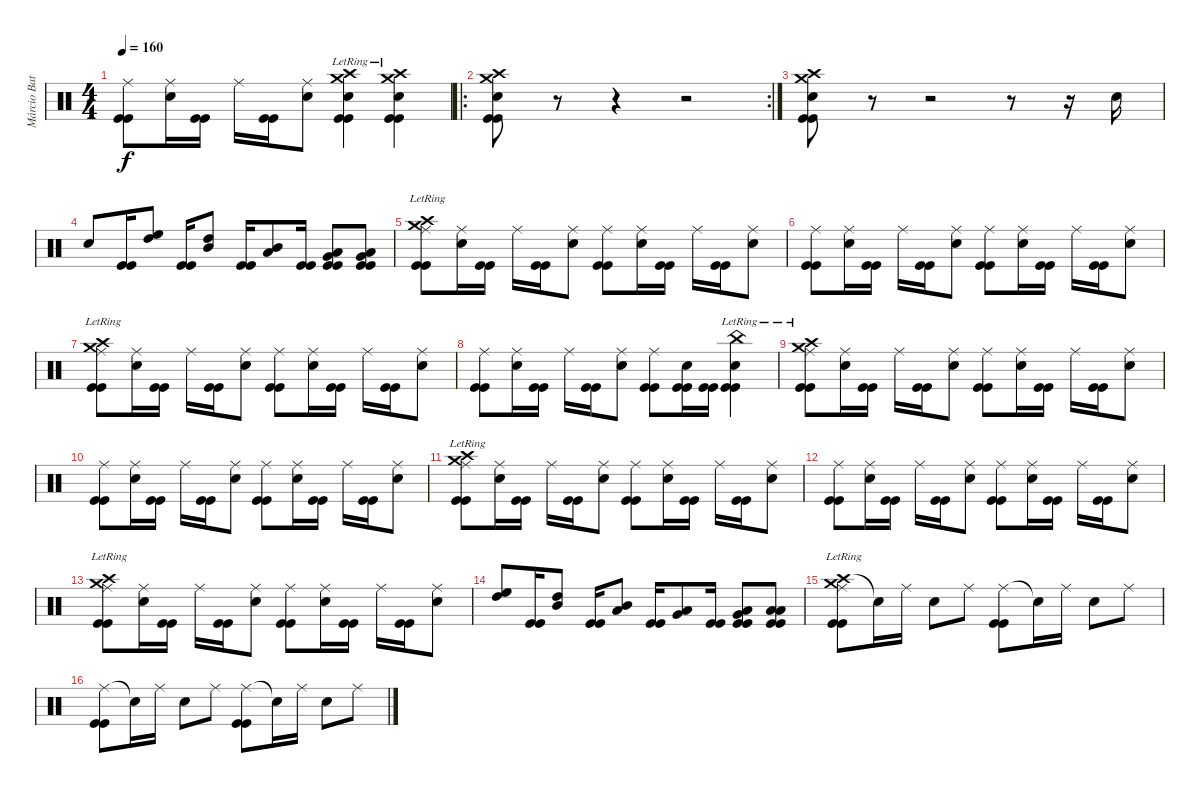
\track ("Márcio Batista" "Márcio Bat") {instrument percussion}
\staff {score}
\articulation defaults
\ts (4 4)
\tempo 160
\clef neutral
\ks c
("Ride (middle)" "Kick (hit)" "Kick (hit)").8{dy f} ("Snare (hit) 2" "Ride (middle)").16 ("Kick (hit)" "Kick (hit)").16 "Ride (middle)".16 ("Kick (hit)" "Kick (hit)").16 ("Snare (hit) 2" "Ride (middle)").8 ("Crash high (hit)"{lr} "Crash medium (hit)"{lr} "Snare (hit) 2" "Kick (hit)" "Kick (hit)").4 ("Crash high (hit)"{lr} "Crash medium (hit)"{lr} "Snare (hit) 2" "Kick (hit)" "Kick (hit)").4 |
\ro
\rc 2
("Crash high (hit)" "Crash medium (hit)" "Snare (hit) 2" "Kick (hit)" "Kick (hit)").8 r.8{volume 0} r.4{volume 16} r.2 |
("Crash high (hit)" "Crash medium (hit)" "Snare (hit) 2" "Kick (hit)" "Kick (hit)").8 r.8{volume 0} r.2{volume 16} r.8 r.16 "Electric Snare (hit)".16 |
"Electric Snare (hit)".8 ("Kick (hit)" "Kick (hit)").16 ("High Tom (hit)" "High Floor Tom (hit)").8 ("Kick (hit)" "Kick (hit)").16 ("Mid Tom (hit)" "High Tom (hit)").8 ("Kick (hit)" "Kick (hit)").16 ("Low Tom (hit)" "Mid Tom (hit)").8 ("Kick (hit)" "Kick (hit)").16 ("Very Low Tom (hit)" "Low Tom (hit)" "Kick (hit)" "Kick (hit)").8 ("Low Floor Tom (hit)" "Very Low Tom (hit)" "Kick (hit)" "Kick (hit)").8 |
("Crash high (hit)"{lr} "Crash medium (hit)"{lr} "Ride (middle)" "Kick (hit)" "Kick (hit)").8 ("Snare (hit) 2" "Ride (middle)").16 ("Kick (hit)" "Kick (hit)").16 "Ride (middle)".16 ("Kick (hit)" "Kick (hit)").16 ("Snare (hit) 2" "Ride (middle)").8 ("Ride (middle)" "Kick (hit)" "Kick (hit)").8 ("Snare (hit) 2" "Ride (middle)").16 ("Kick (hit)" "Kick (hit)").16 "Ride (middle)".16 ("Kick (hit)" "Kick (hit)").16 ("Snare (hit) 2" "Ride (middle)").8 |
("Ride (middle)" "Kick (hit)" "Kick (hit)").8 ("Snare (hit) 2" "Ride (middle)").16 ("Kick (hit)" "Kick (hit)").16 "Ride (middle)".16 ("Kick (hit)" "Kick (hit)").16 ("Snare (hit) 2" "Ride (middle)").8 ("Ride (middle)" "Kick (hit)" "Kick (hit)").8 ("Snare (hit) 2" "Ride (middle)").16 ("Kick (hit)" "Kick (hit)").16 "Ride (middle)".16 ("Kick (hit)" "Kick (hit)").16 ("Snare (hit) 2" "Ride (middle)").8 |
("Crash high (hit)"{lr} "Crash medium (hit)"{lr} "Ride (middle)" "Kick (hit)" "Kick (hit)").8 ("Snare (hit) 2" "Ride (middle)").16 ("Kick (hit)" "Kick (hit)").16 "Ride (middle)".16 ("Kick (hit)" "Kick (hit)").16 ("Snare (hit) 2" "Ride (middle)").8 ("Ride (middle)" "Kick (hit)" "Kick (hit)").8 ("Snare (hit) 2" "Ride (middle)").16 ("Kick (hit)" "Kick (hit)").16 "Ride (middle)".16 ("Kick (hit)" "Kick (hit)").16 ("Snare (hit) 2" "Ride (middle)").8 |
("Ride (middle)" "Kick (hit)" "Kick (hit)").8 ("Snare (hit) 2" "Ride (middle)").16 ("Kick (hit)" "Kick (hit)").16 "Ride (middle)".16 ("Kick (hit)" "Kick (hit)").16 ("Snare (hit) 2" "Ride (middle)").8 ("Ride (middle)" "Kick (hit)" "Kick (hit)").8 ("Snare (hit) 2" "Kick (hit)" "Kick (hit)").16 ("Kick (hit)" "Kick (hit)").16 ("China (hit)"{lr} "Snare (hit) 2" "Kick (hit)" "Kick (hit)").4 |
("Crash high (hit)"{lr} "Crash medium (hit)"{lr} "Ride (middle)" "Kick (hit)" "Kick (hit)").8 ("Snare (hit) 2" "Ride (middle)").16 ("Kick (hit)" "Kick (hit)").16 "Ride (middle)".16 ("Kick (hit)" "Kick (hit)").16 ("Snare (hit) 2" "Ride (middle)").8 ("Ride (middle)" "Kick (hit)" "Kick (hit)").8 ("Snare (hit) 2" "Ride (middle)").16 ("Kick (hit)" "Kick (hit)").16 "Ride (middle)".16 ("Kick (hit)" "Kick (hit)").16 ("Snare (hit) 2" "Ride (middle)").8 |
("Ride (middle)" "Kick (hit)" "Kick (hit)").8 ("Snare (hit) 2" "Ride (middle)").16 ("Kick (hit)" "Kick (hit)").16 "Ride (middle)".16 ("Kick (hit)" "Kick (hit)").16 ("Snare (hit) 2" "Ride (middle)").8 ("Ride (middle)" "Kick (hit)" "Kick (hit)").8 ("Snare (hit) 2" "Ride (middle)").16 ("Kick (hit)" "Kick (hit)").16 "Ride (middle)".16 ("Kick (hit)" "Kick (hit)").16 ("Snare (hit) 2" "Ride (middle)").8 |
("Crash high (hit)"{lr} "Crash medium (hit)"{lr} "Ride (middle)" "Kick (hit)" "Kick (hit)").8 ("Snare (hit) 2" "Ride (middle)").16 ("Kick (hit)" "Kick (hit)").16 "Ride (middle)".16 ("Kick (hit)" "Kick (hit)").16 ("Snare (hit) 2" "Ride (middle)").8 ("Ride (middle)" "Kick (hit)" "Kick (hit)").8 ("Snare (hit) 2" "Ride (middle)").16 ("Kick (hit)" "Kick (hit)").16 "Ride (middle)".16 ("Kick (hit)" "Kick (hit)").16 ("Snare (hit) 2" "Ride (middle)").8 |
("Ride (middle)" "Kick (hit)" "Kick (hit)").8 ("Snare (hit) 2" "Ride (middle)").16 ("Kick (hit)" "Kick (hit)").16 "Ride (middle)".16 ("Kick (hit)" "Kick (hit)").16 ("Snare (hit) 2" "Ride (middle)").8 ("Ride (middle)" "Kick (hit)" "Kick (hit)").8 ("Snare (hit) 2" "Ride (middle)").16 ("Kick (hit)" "Kick (hit)").16 "Ride (middle)".16 ("Kick (hit)" "Kick (hit)").16 ("Snare (hit) 2" "Ride (middle)").8 |
("Crash high (hit)"{lr} "Crash medium (hit)"{lr} "Ride (middle)" "Kick (hit)" "Kick (hit)").8 ("Snare (hit) 2" "Ride (middle)").16 ("Kick (hit)" "Kick (hit)").16 "Ride (middle)".16 ("Kick (hit)" "Kick (hit)").16 ("Snare (hit) 2" "Ride (middle)").8 ("Ride (middle)" "Kick (hit)" "Kick (hit)").8 ("Snare (hit) 2" "Ride (middle)").16 ("Kick (hit)" "Kick (hit)").16 "Ride (middle)".16 ("Kick (hit)" "Kick (hit)").16 ("Snare (hit) 2" "Ride (middle)").8 |
("High Tom (hit)" "High Floor Tom (hit)").8 ("Kick (hit)" "Kick (hit)").16 ("Mid Tom (hit)" "High Tom (hit)").8 ("Kick (hit)" "Kick (hit)").16 ("Low Tom (hit)" "Mid Tom (hit)").8 ("Kick (hit)" "Kick (hit)").16 ("Very Low Tom (hit)" "Low Tom (hit)").8 ("Kick (hit)" "Kick (hit)").16 ("Low Floor Tom (hit)" "Very Low Tom (hit)" "Kick (hit)" "Kick (hit)").8 ("Low Floor Tom (hit)" "Low Floor Tom (hit)" "Kick (hit)" "Kick (hit)").8 |
("Crash high (hit)"{lr} "Crash medium (hit)"{lr} "Ride (middle)" "Kick (hit)" "Kick (hit)").8 "Snare (hit)"{t}.16 "Ride (middle)".16 "Snare (hit) 2".8 "Ride (middle)".8 ("Ride (middle)" "Kick (hit)" "Kick (hit)").8 "Snare (hit)"{t}.16 "Ride (middle)".16 "Snare (hit) 2".8 "Ride (middle)".8 |
("Ride (middle)" "Kick (hit)" "Kick (hit)").8 "Snare (hit)"{t}.16 "Ride (middle)".16 "Snare (hit) 2".8 "Ride (middle)".8 ("Ride (middle)" "Kick (hit)" "Kick (hit)").8 "Snare (hit)"{t}.16 "Ride (middle)".16 "Snare (hit) 2".8 "Ride (middle)".8
